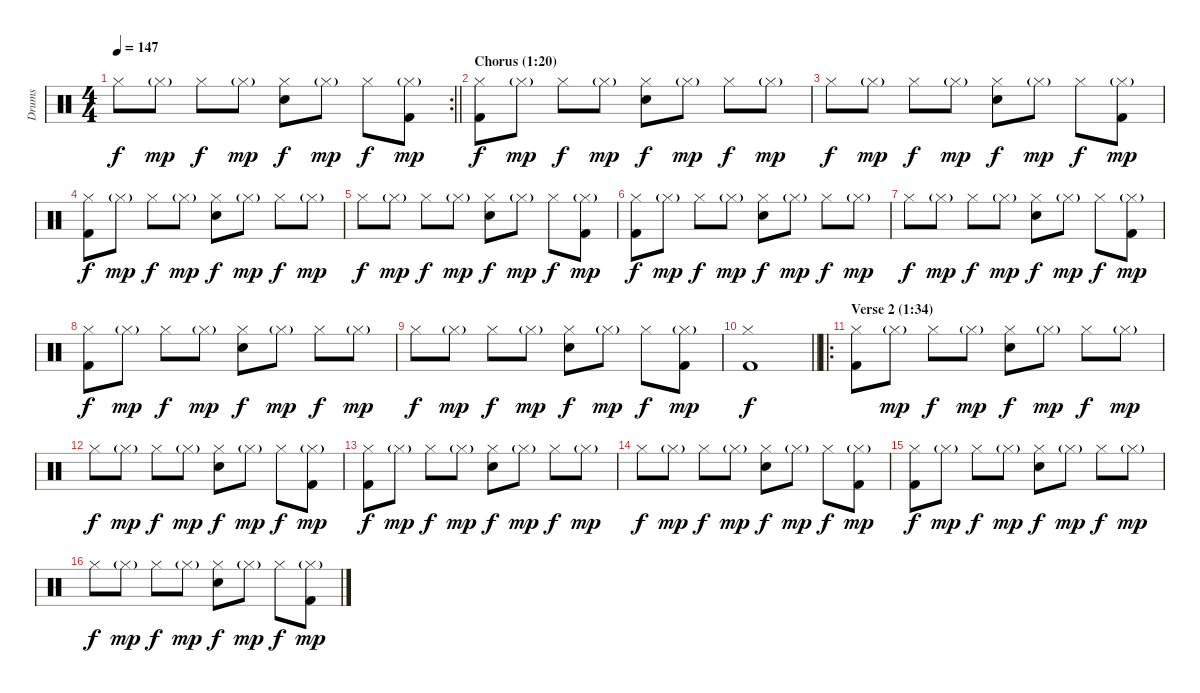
\track ("Drums" "Drums") {instrument percussion}
\staff {score}
\articulation defaults
\rc 2
\ts (4 4)
\tempo 147
\clef neutral
\barLineRight lightlight
\ks c "Hi-Hat (closed)".8{dy f} "Hi-Hat (closed)"{g}.8{dy mp} "Hi-Hat (closed)".8{dy f} "Hi-Hat (closed)"{g}.8{dy mp}
("Hi-Hat (closed)" "Snare (hit) 2").8{dy f} "Hi-Hat (closed)"{g}.8{dy mp} "Hi-Hat (closed)".8{dy f} ("Hi-Hat (closed)"{g} "Kick (hit) 2").8{dy mp} |
\section ("" "Chorus (1:20)")
("Hi-Hat (closed)" "Kick (hit) 2").8{dy f} "Hi-Hat (closed)"{g}.8{dy mp} "Hi-Hat (closed)".8{dy f} "Hi-Hat (closed)"{g}.8{dy mp} ("Hi-Hat (closed)" "Snare (hit) 2").8{dy f} "Hi-Hat (closed)"{g}.8{dy mp} "Hi-Hat (closed)".8{dy f} "Hi-Hat (closed)"{g}.8{dy mp} |
"Hi-Hat (closed)".8{dy f} "Hi-Hat (closed)"{g}.8{dy mp} "Hi-Hat (closed)".8{dy f} "Hi-Hat (closed)"{g}.8{dy mp} ("Hi-Hat (closed)" "Snare (hit) 2").8{dy f} "Hi-Hat (closed)"{g}.8{dy mp} "Hi-Hat (closed)".8{dy f} ("Hi-Hat (closed)"{g} "Kick (hit) 2").8{dy mp} |
("Hi-Hat (closed)" "Kick (hit) 2").8{dy f} "Hi-Hat (closed)"{g}.8{dy mp} "Hi-Hat (closed)".8{dy f} "Hi-Hat (closed)"{g}.8{dy mp} ("Hi-Hat (closed)" "Snare (hit) 2").8{dy f} "Hi-Hat (closed)"{g}.8{dy mp} "Hi-Hat (closed)".8{dy f} "Hi-Hat (closed)"{g}.8{dy mp} |
"Hi-Hat (closed)".8{dy f} "Hi-Hat (closed)"{g}.8{dy mp} "Hi-Hat (closed)".8{dy f} "Hi-Hat (closed)"{g}.8{dy mp} ("Hi-Hat (closed)" "Snare (hit) 2").8{dy f} "Hi-Hat (closed)"{g}.8{dy mp} "Hi-Hat (closed)".8{dy f} ("Hi-Hat (closed)"{g} "Kick (hit) 2").8{dy mp} |
("Hi-Hat (closed)" "Kick (hit) 2").8{dy f} "Hi-Hat (closed)"{g}.8{dy mp} "Hi-Hat (closed)".8{dy f} "Hi-Hat (closed)"{g}.8{dy mp} ("Hi-Hat (closed)" "Snare (hit) 2").8{dy f} "Hi-Hat (closed)"{g}.8{dy mp} "Hi-Hat (closed)".8{dy f} "Hi-Hat (closed)"{g}.8{dy mp} |
"Hi-Hat (closed)".8{dy f} "Hi-Hat (closed)"{g}.8{dy mp} "Hi-Hat (closed)".8{dy f} "Hi-Hat (closed)"{g}.8{dy mp} ("Hi-Hat (closed)" "Snare (hit) 2").8{dy f} "Hi-Hat (closed)"{g}.8{dy mp} "Hi-Hat (closed)".8{dy f} ("Hi-Hat (closed)"{g} "Kick (hit) 2").8{dy mp} |
("Hi-Hat (closed)" "Kick (hit) 2").8{dy f} "Hi-Hat (closed)"{g}.8{dy mp} "Hi-Hat (closed)".8{dy f} "Hi-Hat (closed)"{g}.8{dy mp} ("Hi-Hat (closed)" "Snare (hit) 2").8{dy f} "Hi-Hat (closed)"{g}.8{dy mp} "Hi-Hat (closed)".8{dy f} "Hi-Hat (closed)"{g}.8{dy mp} |
"Hi-Hat (closed)".8{dy f} "Hi-Hat (closed)"{g}.8{dy mp} "Hi-Hat (closed)".8{dy f} "Hi-Hat (closed)"{g}.8{dy mp} ("Hi-Hat (closed)" "Snare (hit) 2").8{dy f} "Hi-Hat (closed)"{g}.8{dy mp} "Hi-Hat (closed)".8{dy f} ("Hi-Hat (closed)"{g} "Kick (hit) 2").8{dy mp} |
\barLineRight lightlight
("Hi-Hat (closed)" "Kick (hit) 2").1{dy f} |
\ro
\section ("" "Verse 2 (1:34)")
("Hi-Hat (closed)" "Kick (hit) 2").8 "Hi-Hat (closed)"{g}.8{dy mp} "Hi-Hat (closed)".8{dy f} "Hi-Hat (closed)"{g}.8{dy mp} ("Hi-Hat (closed)" "Snare (hit) 2").8{dy f} "Hi-Hat (closed)"{g}.8{dy mp} "Hi-Hat (closed)".8{dy f} "Hi-Hat (closed)"{g}.8{dy mp} |
"Hi-Hat (closed)".8{dy f} "Hi-Hat (closed)"{g}.8{dy mp} "Hi-Hat (closed)".8{dy f} "Hi-Hat (closed)"{g}.8{dy mp} ("Hi-Hat (closed)" "Snare (hit) 2").8{dy f} "Hi-Hat (closed)"{g}.8{dy mp} "Hi-Hat (closed)".8{dy f} ("Hi-Hat (closed)"{g} "Kick (hit) 2").8{dy mp} |
("Hi-Hat (closed)" "Kick (hit) 2").8{dy f} "Hi-Hat (closed)"{g}.8{dy mp} "Hi-Hat (closed)".8{dy f} "Hi-Hat (closed)"{g}.8{dy mp} ("Hi-Hat (closed)" "Snare (hit) 2").8{dy f} "Hi-Hat (closed)"{g}.8{dy mp} "Hi-Hat (closed)".8{dy f} "Hi-Hat (closed)"{g}.8{dy mp} |
"Hi-Hat (closed)".8{dy f} "Hi-Hat (closed)"{g}.8{dy mp} "Hi-Hat (closed)".8{dy f} "Hi-Hat (closed)"{g}.8{dy mp} ("Hi-Hat (closed)" "Snare (hit) 2").8{dy f} "Hi-Hat (closed)"{g}.8{dy mp} "Hi-Hat (closed)".8{dy f} ("Hi-Hat (closed)"{g} "Kick (hit) 2").8{dy mp} |
("Hi-Hat (closed)" "Kick (hit) 2").8{dy f} "Hi-Hat (closed)"{g}.8{dy mp} "Hi-Hat (closed)".8{dy f} "Hi-Hat (closed)"{g}.8{dy mp} ("Hi-Hat (closed)" "Snare (hit) 2").8{dy f} "Hi-Hat (closed)"{g}.8{dy mp} "Hi-Hat (closed)".8{dy f} "Hi-Hat (closed)"{g}.8{dy mp} |
"Hi-Hat (closed)".8{dy f} "Hi-Hat (closed)"{g}.8{dy mp} "Hi-Hat (closed)".8{dy f} "Hi-Hat (closed)"{g}.8{dy mp} ("Hi-Hat (closed)" "Snare (hit) 2").8{dy f} "Hi-Hat (closed)"{g}.8{dy mp} "Hi-Hat (closed)".8{dy f} ("Hi-Hat (closed)"{g} "Kick (hit) 2").8{dy mp}
